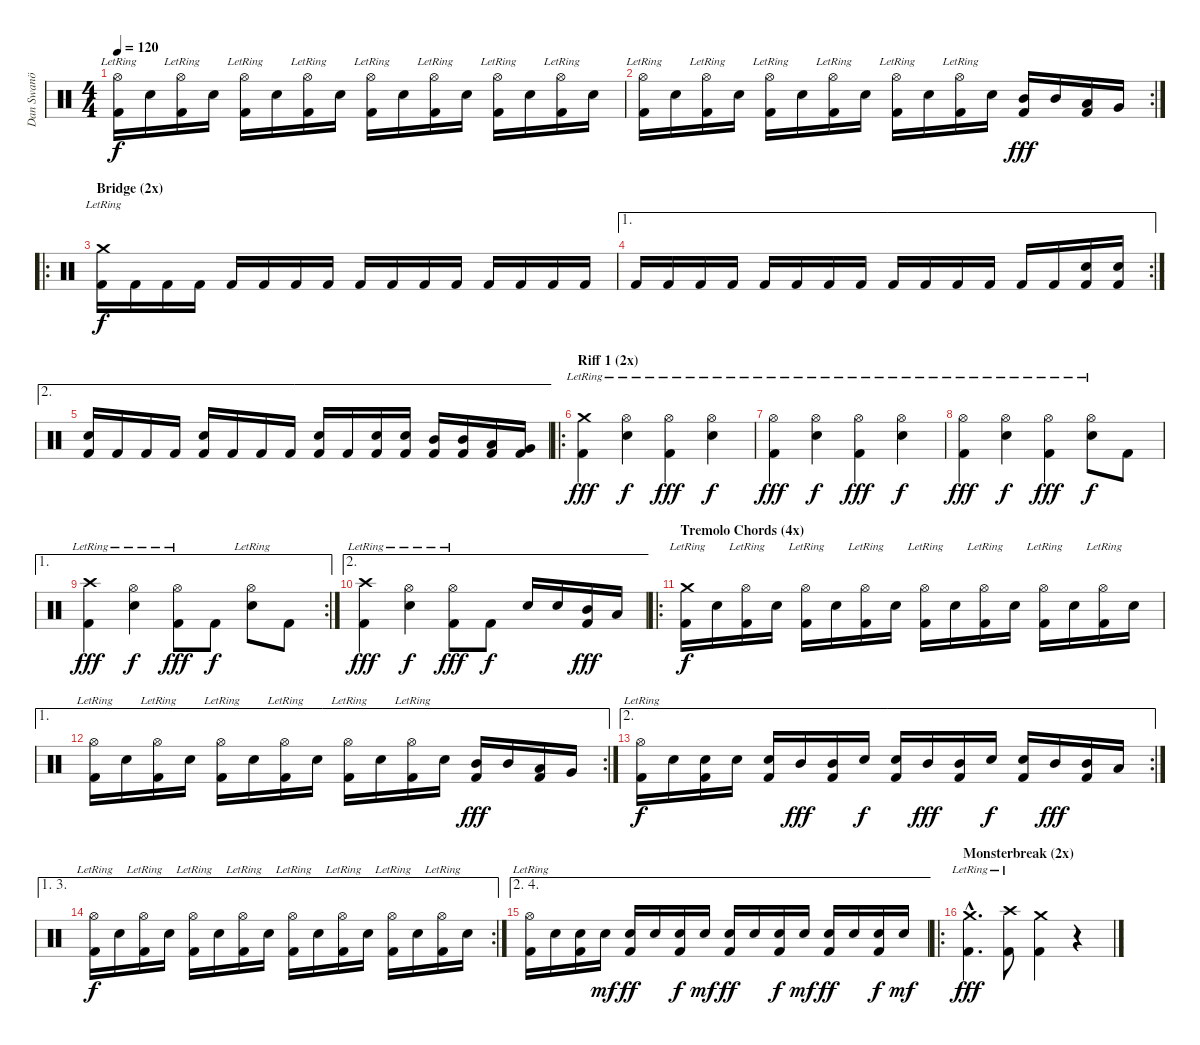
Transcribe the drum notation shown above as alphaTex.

\track ("Dan Swanö" "Dan Swanö") {instrument percussion}
\staff {score}
\articulation defaults
\ts (4 4)
\tempo 120
\clef neutral
\ks c
("Hi-Hat (open)"{lr} "Kick (hit) 2").16{dy f} "Electric Snare (hit)".16 ("Hi-Hat (open)"{lr} "Kick (hit) 2").16 "Electric Snare (hit)".16 ("Hi-Hat (open)"{lr} "Kick (hit) 2").16 "Electric Snare (hit)".16 ("Hi-Hat (open)"{lr} "Kick (hit) 2").16 "Electric Snare (hit)".16 ("Hi-Hat (open)"{lr} "Kick (hit) 2").16 "Electric Snare (hit)".16 ("Hi-Hat (open)"{lr} "Kick (hit) 2").16 "Electric Snare (hit)".16 ("Hi-Hat (open)"{lr} "Kick (hit) 2").16 "Electric Snare (hit)".16 ("Hi-Hat (open)"{lr} "Kick (hit) 2").16 "Electric Snare (hit)".16 |
\rc 2
("Hi-Hat (open)"{lr} "Kick (hit) 2").16 "Electric Snare (hit)".16 ("Hi-Hat (open)"{lr} "Kick (hit) 2").16 "Electric Snare (hit)".16 ("Hi-Hat (open)"{lr} "Kick (hit) 2").16 "Electric Snare (hit)".16 ("Hi-Hat (open)"{lr} "Kick (hit) 2").16 "Electric Snare (hit)".16 ("Hi-Hat (open)"{lr} "Kick (hit) 2").16 "Electric Snare (hit)".16 ("Hi-Hat (open)"{lr} "Kick (hit) 2").16 "Electric Snare (hit)".16 ("Mid Tom (hit)" "Kick (hit) 2").16{dy fff} "Mid Tom (hit)".16 ("Low Tom (hit)" "Kick (hit) 2").16 "Very Low Tom (hit)".16 |
\ro
\section ("" "Bridge (2x)")
("Crash medium (hit)"{lr} "Kick (hit) 2").16{dy f} "Kick (hit) 2".16 "Kick (hit) 2".16 "Kick (hit) 2".16 "Kick (hit) 2".16 "Kick (hit) 2".16 "Kick (hit) 2".16 "Kick (hit) 2".16 "Kick (hit) 2".16 "Kick (hit) 2".16 "Kick (hit) 2".16 "Kick (hit) 2".16 "Kick (hit) 2".16 "Kick (hit) 2".16 "Kick (hit) 2".16 "Kick (hit) 2".16 |
\ae 1
\rc 2 "Kick (hit) 2".16 "Kick (hit) 2".16 "Kick (hit) 2".16 "Kick (hit) 2".16 "Kick (hit) 2".16 "Kick (hit) 2".16 "Kick (hit) 2".16 "Kick (hit) 2".16 "Kick (hit) 2".16 "Kick (hit) 2".16 "Kick (hit) 2".16 "Kick (hit) 2".16 "Kick (hit) 2".16 "Kick (hit) 2".16
("Electric Snare (hit)" "Kick (hit) 2").16 ("Electric Snare (hit)" "Kick (hit) 2").16 |
\ae 2
("Electric Snare (hit)" "Kick (hit) 2").16 "Kick (hit) 2".16 "Kick (hit) 2".16 "Kick (hit) 2".16 ("Electric Snare (hit)" "Kick (hit) 2").16 "Kick (hit) 2".16 "Kick (hit) 2".16 "Kick (hit) 2".16 ("Electric Snare (hit)" "Kick (hit) 2").16 "Kick (hit) 2".16 ("Electric Snare (hit)" "Kick (hit) 2").16 ("Electric Snare (hit)" "Kick (hit) 2").16 ("Mid Tom (hit)" "Kick (hit) 2").16 ("Mid Tom (hit)" "Kick (hit) 2").16 ("Low Tom (hit)" "Kick (hit) 2").16 ("Very Low Tom (hit)" "Kick (hit) 2").16 |
\ro
\section ("" "Riff 1 (2x)")
("Crash medium (hit)"{lr} "Kick (hit) 2").4{dy fff} ("Hi-Hat (open)"{lr} "Electric Snare (hit)").4{dy f} ("Hi-Hat (open)"{lr} "Kick (hit) 2").4{dy fff} ("Hi-Hat (open)"{lr} "Electric Snare (hit)").4{dy f} |
("Hi-Hat (open)"{lr} "Kick (hit) 2").4{dy fff} ("Hi-Hat (open)"{lr} "Electric Snare (hit)").4{dy f} ("Hi-Hat (open)"{lr} "Kick (hit) 2").4{dy fff} ("Hi-Hat (open)"{lr} "Electric Snare (hit)").4{dy f} |
("Hi-Hat (open)"{lr} "Kick (hit) 2").4{dy fff} ("Hi-Hat (open)"{lr} "Electric Snare (hit)").4{dy f} ("Hi-Hat (open)"{lr} "Kick (hit) 2").4{dy fff} ("Hi-Hat (open)"{lr} "Electric Snare (hit)").8{dy f} "Kick (hit) 2".8 |
\ae 1
\rc 2
("Crash high (hit)"{lr} "Kick (hit) 2").4{dy fff} ("Hi-Hat (open)"{lr} "Electric Snare (hit)").4{dy f} ("Hi-Hat (open)"{lr} "Kick (hit) 2").8{dy fff} "Kick (hit) 2".8{dy f} ("Hi-Hat (open)"{lr} "Electric Snare (hit)").8 "Kick (hit) 2".8 |
\ae 2
("Crash high (hit)"{lr} "Kick (hit) 2").4{dy fff} ("Hi-Hat (open)"{lr} "Electric Snare (hit)").4{dy f} ("Hi-Hat (open)"{lr} "Kick (hit) 2").8{dy fff} "Kick (hit) 2".8{dy f} "Electric Snare (hit)".16 "Electric Snare (hit)".16 ("Mid Tom (hit)" "Kick (hit) 2").16{dy fff} "Low Tom (hit)".16 |
\ro
\section ("" "Tremolo Chords (4x)")
("Crash medium (hit)"{lr} "Kick (hit) 2").16{dy f} "Electric Snare (hit)".16 ("Hi-Hat (open)"{lr} "Kick (hit) 2").16 "Electric Snare (hit)".16 ("Hi-Hat (open)"{lr} "Kick (hit) 2").16 "Electric Snare (hit)".16 ("Hi-Hat (open)"{lr} "Kick (hit) 2").16 "Electric Snare (hit)".16 ("Hi-Hat (open)"{lr} "Kick (hit) 2").16 "Electric Snare (hit)".16 ("Hi-Hat (open)"{lr} "Kick (hit) 2").16 "Electric Snare (hit)".16 ("Hi-Hat (open)"{lr} "Kick (hit) 2").16 "Electric Snare (hit)".16 ("Hi-Hat (open)"{lr} "Kick (hit) 2").16 "Electric Snare (hit)".16 |
\ae 1
\rc 2
("Hi-Hat (open)"{lr} "Kick (hit) 2").16 "Electric Snare (hit)".16 ("Hi-Hat (open)"{lr} "Kick (hit) 2").16 "Electric Snare (hit)".16 ("Hi-Hat (open)"{lr} "Kick (hit) 2").16 "Electric Snare (hit)".16 ("Hi-Hat (open)"{lr} "Kick (hit) 2").16 "Electric Snare (hit)".16 ("Hi-Hat (open)"{lr} "Kick (hit) 2").16 "Electric Snare (hit)".16 ("Hi-Hat (open)"{lr} "Kick (hit) 2").16 "Electric Snare (hit)".16 ("Mid Tom (hit)" "Kick (hit) 2").16{dy fff} "Mid Tom (hit)".16 ("Low Tom (hit)" "Kick (hit) 2").16 "Very Low Tom (hit)".16 |
\ae 2
\rc 2
("Hi-Hat (open)"{lr} "Kick (hit) 2").16{dy f} "Electric Snare (hit)".16 ("Electric Snare (hit)" "Kick (hit) 2").16 "Electric Snare (hit)".16 ("Electric Snare (hit)" "Kick (hit) 2").16 "Mid Tom (hit)".16{dy fff} ("Mid Tom (hit)" "Kick (hit) 2").16 "Electric Snare (hit)".16{dy f} ("Electric Snare (hit)" "Kick (hit) 2").16 "Mid Tom (hit)".16{dy fff} ("Mid Tom (hit)" "Kick (hit) 2").16 "Electric Snare (hit)".16{dy f} ("Electric Snare (hit)" "Kick (hit) 2").16 "Mid Tom (hit)".16{dy fff} ("Mid Tom (hit)" "Kick (hit) 2").16 "Low Tom (hit)".16 |
\ae (1 3)
\rc 2
("Hi-Hat (open)"{lr} "Kick (hit) 2").16{dy f} "Electric Snare (hit)".16 ("Hi-Hat (open)"{lr} "Kick (hit) 2").16 "Electric Snare (hit)".16 ("Hi-Hat (open)"{lr} "Kick (hit) 2").16 "Electric Snare (hit)".16 ("Hi-Hat (open)"{lr} "Kick (hit) 2").16 "Electric Snare (hit)".16 ("Hi-Hat (open)"{lr} "Kick (hit) 2").16 "Electric Snare (hit)".16 ("Hi-Hat (open)"{lr} "Kick (hit) 2").16 "Electric Snare (hit)".16 ("Hi-Hat (open)"{lr} "Kick (hit) 2").16 "Electric Snare (hit)".16 ("Hi-Hat (open)"{lr} "Kick (hit) 2").16 "Electric Snare (hit)".16 |
\ae (2 4)
("Hi-Hat (open)"{lr} "Kick (hit) 2").16 "Electric Snare (hit)".16 ("Electric Snare (hit)" "Kick (hit) 2").16 "Electric Snare (hit)".16{dy mf} ("Electric Snare (hit)" "Kick (hit) 2").16{dy ff} "Electric Snare (hit)".16 ("Electric Snare (hit)" "Kick (hit) 2").16{dy f} "Electric Snare (hit)".16{dy mf} ("Electric Snare (hit)" "Kick (hit) 2").16{dy ff} "Electric Snare (hit)".16 ("Electric Snare (hit)" "Kick (hit) 2").16{dy f} "Electric Snare (hit)".16{dy mf} ("Electric Snare (hit)" "Kick (hit) 2").16{dy ff} "Electric Snare (hit)".16 ("Electric Snare (hit)" "Kick (hit) 2").16{dy f} "Electric Snare (hit)".16{dy mf} |
\ro
\section ("" "Monsterbreak (2x)")
("Crash medium (hit)"{hac lr} "Kick (hit) 2"{hac}).4{d dy fff} ("Crash high (hit)"{lr} "Kick (hit) 2").8 ("Crash medium (hit)" "Kick (hit) 2").4 r.4
